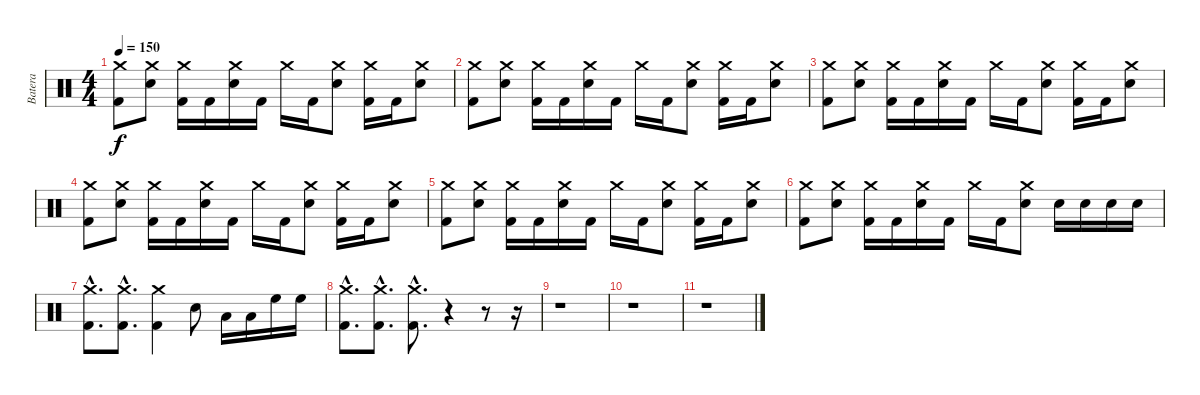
\track ("Batera" "Batera") {instrument percussion}
\staff {score}
\articulation defaults
\ts (4 4)
\tempo 150
\clef neutral
\ks c
("Kick (hit) 2" "Crash medium (hit)").8{dy f} ("Snare (hit) 2" "Crash medium (hit)").8 ("Kick (hit) 2" "Crash medium (hit)").16 "Kick (hit) 2".16 ("Snare (hit) 2" "Crash medium (hit)").16 "Kick (hit) 2".16 "Crash medium (hit)".16 "Kick (hit) 2".16 ("Snare (hit) 2" "Crash medium (hit)").8 ("Kick (hit) 2" "Crash medium (hit)").16 "Kick (hit) 2".16 ("Snare (hit) 2" "Crash medium (hit)").8 |
("Kick (hit) 2" "Crash medium (hit)").8 ("Snare (hit) 2" "Crash medium (hit)").8 ("Kick (hit) 2" "Crash medium (hit)").16 "Kick (hit) 2".16 ("Snare (hit) 2" "Crash medium (hit)").16 "Kick (hit) 2".16 "Crash medium (hit)".16 "Kick (hit) 2".16 ("Snare (hit) 2" "Crash medium (hit)").8 ("Kick (hit) 2" "Crash medium (hit)").16 "Kick (hit) 2".16 ("Snare (hit) 2" "Crash medium (hit)").8 |
("Kick (hit) 2" "Crash medium (hit)").8 ("Snare (hit) 2" "Crash medium (hit)").8 ("Kick (hit) 2" "Crash medium (hit)").16 "Kick (hit) 2".16 ("Snare (hit) 2" "Crash medium (hit)").16 "Kick (hit) 2".16 "Crash medium (hit)".16 "Kick (hit) 2".16 ("Snare (hit) 2" "Crash medium (hit)").8 ("Kick (hit) 2" "Crash medium (hit)").16 "Kick (hit) 2".16 ("Snare (hit) 2" "Crash medium (hit)").8 |
("Kick (hit) 2" "Crash medium (hit)").8 ("Snare (hit) 2" "Crash medium (hit)").8 ("Kick (hit) 2" "Crash medium (hit)").16 "Kick (hit) 2".16 ("Snare (hit) 2" "Crash medium (hit)").16 "Kick (hit) 2".16 "Crash medium (hit)".16 "Kick (hit) 2".16 ("Snare (hit) 2" "Crash medium (hit)").8 ("Kick (hit) 2" "Crash medium (hit)").16 "Kick (hit) 2".16 ("Snare (hit) 2" "Crash medium (hit)").8 |
("Kick (hit) 2" "Crash medium (hit)").8 ("Snare (hit) 2" "Crash medium (hit)").8 ("Kick (hit) 2" "Crash medium (hit)").16 "Kick (hit) 2".16 ("Snare (hit) 2" "Crash medium (hit)").16 "Kick (hit) 2".16 "Crash medium (hit)".16 "Kick (hit) 2".16 ("Snare (hit) 2" "Crash medium (hit)").8 ("Kick (hit) 2" "Crash medium (hit)").16 "Kick (hit) 2".16 ("Snare (hit) 2" "Crash medium (hit)").8 |
("Kick (hit) 2" "Crash medium (hit)").8 ("Snare (hit) 2" "Crash medium (hit)").8 ("Kick (hit) 2" "Crash medium (hit)").16 "Kick (hit) 2".16 ("Snare (hit) 2" "Crash medium (hit)").16 "Kick (hit) 2".16 "Crash medium (hit)".16 "Kick (hit) 2".16 ("Snare (hit) 2" "Crash medium (hit)").8 "Snare (hit) 2".16 "Snare (hit) 2".16 "Snare (hit) 2".16 "Snare (hit) 2".16 |
("Kick (hit) 2"{hac} "Crash medium (hit)"{hac}).8{d} ("Kick (hit) 2"{hac} "Crash medium (hit)"{hac}).8{d} ("Kick (hit) 2" "Crash medium (hit)").4 "Snare (hit) 2".8 "Low Tom (hit)".16 "Low Tom (hit)".16 "High Floor Tom (hit)".16 "High Floor Tom (hit)".16 |
("Kick (hit) 2"{hac} "Crash medium (hit)"{hac}).8{d} ("Kick (hit) 2"{hac} "Crash medium (hit)"{hac}).8{d} ("Kick (hit) 2"{hac} "Crash medium (hit)"{hac}).8{d} r.4 r.8 r.16 |
r.1 |
r.1 |
r.1
